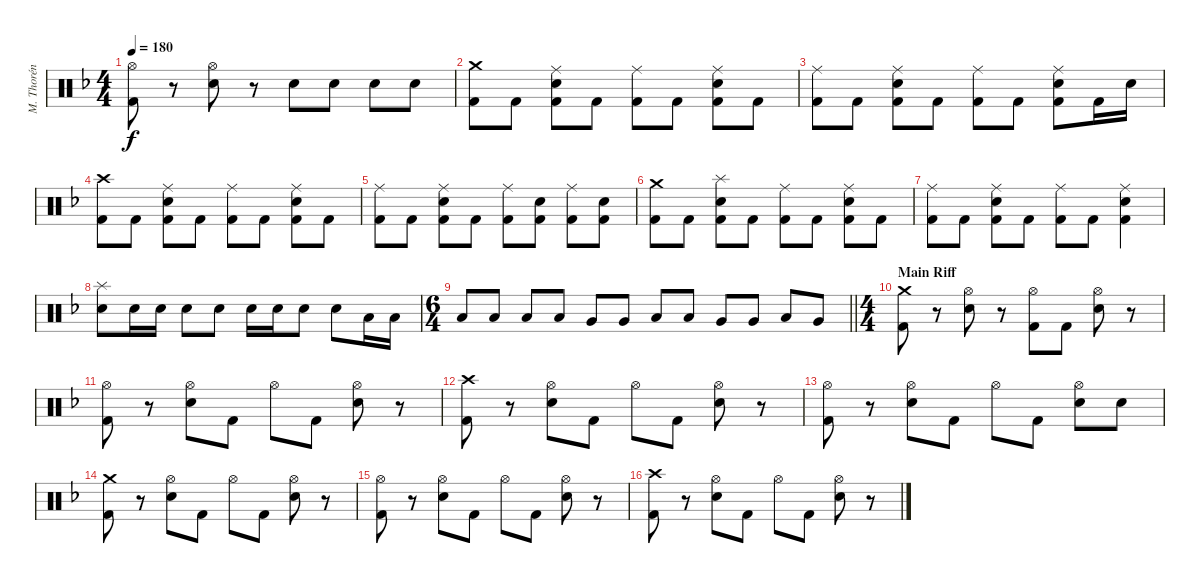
\track ("M. Thorén (Drums)" "M. Thorén ") {instrument percussion}
\staff {score}
\articulation defaults
\ts (4 4)
\tempo 180
\clef neutral
\ks dminor
("Hi-Hat (open)" "Kick (hit) 2").8{dy f} r.8 ("Hi-Hat (open)" "Electric Snare (hit)").8 r.8 "Electric Snare (hit)".8 "Electric Snare (hit)".8 "Electric Snare (hit)".8 "Electric Snare (hit)".8 |
("Crash medium (hit)" "Kick (hit) 2").8 "Kick (hit) 2".8 ("Ride (middle)" "Electric Snare (hit)" "Kick (hit) 2").8 "Kick (hit) 2".8 ("Ride (middle)" "Kick (hit) 2").8 "Kick (hit) 2".8 ("Ride (middle)" "Electric Snare (hit)" "Kick (hit) 2").8 "Kick (hit) 2".8 |
("Ride (middle)" "Kick (hit) 2").8 "Kick (hit) 2".8 ("Ride (middle)" "Electric Snare (hit)" "Kick (hit) 2").8 "Kick (hit) 2".8 ("Ride (middle)" "Kick (hit) 2").8 "Kick (hit) 2".8 ("Ride (middle)" "Electric Snare (hit)" "Kick (hit) 2").8 "Kick (hit) 2".16 "Electric Snare (hit)".16 |
("Crash high (hit)" "Kick (hit) 2").8 "Kick (hit) 2".8 ("Ride (middle)" "Electric Snare (hit)" "Kick (hit) 2").8 "Kick (hit) 2".8 ("Ride (middle)" "Kick (hit) 2").8 "Kick (hit) 2".8 ("Ride (middle)" "Electric Snare (hit)" "Kick (hit) 2").8 "Kick (hit) 2".8 |
("Ride (middle)" "Kick (hit) 2").8 "Kick (hit) 2".8 ("Ride (middle)" "Electric Snare (hit)" "Kick (hit) 2").8 "Kick (hit) 2".8 ("Ride (middle)" "Kick (hit) 2").8 ("Electric Snare (hit)" "Kick (hit) 2").8 ("Ride (middle)" "Kick (hit) 2").8 ("Electric Snare (hit)" "Kick (hit) 2").8 |
("Crash medium (hit)" "Kick (hit) 2").8 "Kick (hit) 2".8 ("Splash (hit)" "Electric Snare (hit)" "Kick (hit) 2").8 "Kick (hit) 2".8 ("Ride (middle)" "Kick (hit) 2").8 "Kick (hit) 2".8 ("Ride (middle)" "Electric Snare (hit)" "Kick (hit) 2").8 "Kick (hit) 2".8 |
("Ride (middle)" "Kick (hit) 2").8 "Kick (hit) 2".8 ("Ride (middle)" "Electric Snare (hit)" "Kick (hit) 2").8 "Kick (hit) 2".8 ("Ride (middle)" "Kick (hit) 2").8 "Kick (hit) 2".8 ("Ride (middle)" "Electric Snare (hit)" "Kick (hit) 2").4 |
("Splash (hit)" "Electric Snare (hit)").8 "Electric Snare (hit)".16 "Electric Snare (hit)".16 "Electric Snare (hit)".8 "Electric Snare (hit)".8 "Electric Snare (hit)".16 "Electric Snare (hit)".16 "Electric Snare (hit)".8 "Electric Snare (hit)".8 "Low Tom (hit)".16 "Low Tom (hit)".16 |
\ts (6 4)
\barLineRight lightlight "Low Tom (hit)".8 "Low Tom (hit)".8 "Low Tom (hit)".8 "Low Tom (hit)".8 "Very Low Tom (hit)".8 "Very Low Tom (hit)".8 "Low Floor Tom (hit)".8 "Low Floor Tom (hit)".8 "Very Low Tom (hit)".8 "Very Low Tom (hit)".8 "Low Tom (hit)".8 "Very Low Tom (hit)".8
|
\ts (4 4)
\section ("" "Main Riff")
("Crash medium (hit)" "Kick (hit) 2").8 r.8 ("Hi-Hat (open)" "Electric Snare (hit)").8 r.8 ("Hi-Hat (open)" "Kick (hit) 2").8 "Kick (hit) 2".8 ("Hi-Hat (open)" "Electric Snare (hit)").8 r.8 |
("Hi-Hat (open)" "Kick (hit) 2").8 r.8 ("Hi-Hat (open)" "Electric Snare (hit)").8 "Kick (hit) 2".8 "Hi-Hat (open)".8 "Kick (hit) 2".8 ("Hi-Hat (open)" "Electric Snare (hit)").8 r.8 |
("Crash high (hit)" "Kick (hit) 2").8 r.8 ("Hi-Hat (open)" "Electric Snare (hit)").8 "Kick (hit) 2".8 "Hi-Hat (open)".8 "Kick (hit) 2".8 ("Hi-Hat (open)" "Electric Snare (hit)").8 r.8 |
("Hi-Hat (open)" "Kick (hit) 2").8 r.8 ("Hi-Hat (open)" "Electric Snare (hit)").8 "Kick (hit) 2".8 "Hi-Hat (open)".8 "Kick (hit) 2".8 ("Hi-Hat (open)" "Electric Snare (hit)").8 "Electric Snare (hit)".8 |
("Crash medium (hit)" "Kick (hit) 2").8 r.8 ("Hi-Hat (open)" "Electric Snare (hit)").8 "Kick (hit) 2".8 "Hi-Hat (open)".8 "Kick (hit) 2".8 ("Hi-Hat (open)" "Electric Snare (hit)").8 r.8 |
("Hi-Hat (open)" "Kick (hit) 2").8 r.8 ("Hi-Hat (open)" "Electric Snare (hit)").8 "Kick (hit) 2".8 "Hi-Hat (open)".8 "Kick (hit) 2".8 ("Hi-Hat (open)" "Electric Snare (hit)").8 r.8 |
("Crash high (hit)" "Kick (hit) 2").8 r.8 ("Hi-Hat (open)" "Electric Snare (hit)").8 "Kick (hit) 2".8 "Hi-Hat (open)".8 "Kick (hit) 2".8 ("Hi-Hat (open)" "Electric Snare (hit)").8 r.8
